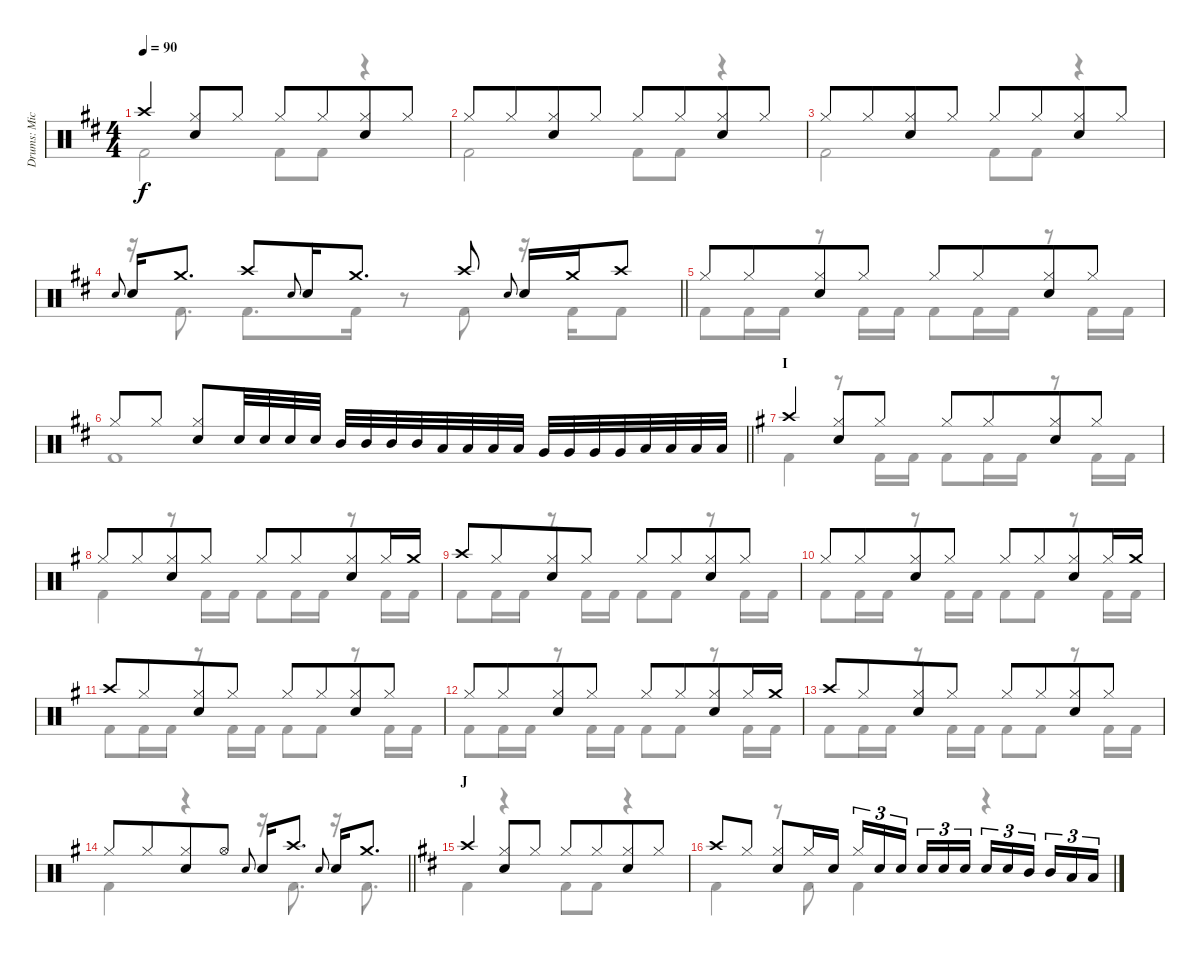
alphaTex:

\track ("Drums: Mick" "Drums: Mic") {instrument percussion}
\staff {score}
\articulation defaults
\voice
\ts (4 4)
\tempo 90
\clef neutral
\ks d "Crash high (hit)".4{dy f}
("Hi-Hat (closed)" "Snare (hit) 2").8 "Hi-Hat (closed)".8 "Hi-Hat (closed)".8 "Hi-Hat (closed)".8{beam merge} ("Hi-Hat (closed)" "Snare (hit) 2").8 "Hi-Hat (closed)".8 |
"Hi-Hat (closed)".8 "Hi-Hat (closed)".8{beam merge} ("Hi-Hat (closed)" "Snare (hit) 2").8 "Hi-Hat (closed)".8 "Hi-Hat (closed)".8 "Hi-Hat (closed)".8{beam merge} ("Hi-Hat (closed)" "Snare (hit) 2").8 "Hi-Hat (closed)".8 |
"Hi-Hat (closed)".8 "Hi-Hat (closed)".8{beam merge} ("Hi-Hat (closed)" "Snare (hit) 2").8 "Hi-Hat (closed)".8 "Hi-Hat (closed)".8 "Hi-Hat (closed)".8{beam merge} ("Hi-Hat (closed)" "Snare (hit) 2").8 "Hi-Hat (closed)".8 |
\barLineRight lightlight "Electric Snare (hit)".8{gr onbeat beam merge} "Snare (hit) 2".16 "Crash medium (hit)".8{d} "Crash high (hit)".8 "Electric Snare (hit)".8{gr onbeat beam merge} "Snare (hit) 2".16 "Crash medium (hit)".8{d} "Crash high (hit)".8 "Electric Snare (hit)".8{gr onbeat beam merge} "Snare (hit) 2".16 "Crash medium (hit)".16 "Crash high (hit)".8
|
"Hi-Hat (closed)".8 "Hi-Hat (closed)".8{beam merge} ("Hi-Hat (closed)" "Snare (hit) 2").8 "Hi-Hat (closed)".8 "Hi-Hat (closed)".8 "Hi-Hat (closed)".8{beam merge} ("Hi-Hat (closed)" "Snare (hit) 2").8 "Hi-Hat (closed)".8 |
\barLineRight lightlight "Hi-Hat (closed)".8 "Hi-Hat (closed)".8
("Hi-Hat (closed)" "Snare (hit) 2").8 "Snare (hit) 2".32 "Snare (hit) 2".32 "Snare (hit) 2".32 "Snare (hit) 2".32 "Mid Tom (hit)".32 "Mid Tom (hit)".32 "Mid Tom (hit)".32 "Mid Tom (hit)".32 "Low Tom (hit)".32 "Low Tom (hit)".32 "Low Tom (hit)".32 "Low Tom (hit)".32 "Very Low Tom (hit)".32 "Very Low Tom (hit)".32 "Very Low Tom (hit)".32 "Very Low Tom (hit)".32 "Low Floor Tom (hit)".32 "Low Floor Tom (hit)".32 "Low Floor Tom (hit)".32 "Low Floor Tom (hit)".32 |
\section ("" "I")
\ks g "Crash high (hit)".4
("Hi-Hat (closed)" "Snare (hit) 2").8 "Hi-Hat (closed)".8 "Hi-Hat (closed)".8 "Hi-Hat (closed)".8{beam merge} ("Hi-Hat (closed)" "Snare (hit) 2").8 "Hi-Hat (closed)".8 |
"Hi-Hat (closed)".8 "Hi-Hat (closed)".8{beam merge} ("Hi-Hat (closed)" "Snare (hit) 2").8 "Hi-Hat (closed)".8 "Hi-Hat (closed)".8 "Hi-Hat (closed)".8{beam merge} ("Hi-Hat (closed)" "Snare (hit) 2").8 "Hi-Hat (closed)".16 "Crash medium (hit)".16 |
"Crash high (hit)".8 "Hi-Hat (closed)".8{beam merge} ("Hi-Hat (closed)" "Snare (hit) 2").8 "Hi-Hat (closed)".8 "Hi-Hat (closed)".8 "Hi-Hat (closed)".8{beam merge} ("Hi-Hat (closed)" "Snare (hit) 2").8 "Hi-Hat (closed)".8 |
"Hi-Hat (closed)".8 "Hi-Hat (closed)".8{beam merge} ("Hi-Hat (closed)" "Snare (hit) 2").8 "Hi-Hat (closed)".8 "Hi-Hat (closed)".8 "Hi-Hat (closed)".8{beam merge} ("Hi-Hat (closed)" "Snare (hit) 2").8 "Hi-Hat (closed)".16 "Crash medium (hit)".16 |
"Crash high (hit)".8 "Hi-Hat (closed)".8{beam merge} ("Hi-Hat (closed)" "Snare (hit) 2").8 "Hi-Hat (closed)".8 "Hi-Hat (closed)".8 "Hi-Hat (closed)".8{beam merge} ("Hi-Hat (closed)" "Snare (hit) 2").8 "Hi-Hat (closed)".8 |
"Hi-Hat (closed)".8 "Hi-Hat (closed)".8{beam merge} ("Hi-Hat (closed)" "Snare (hit) 2").8 "Hi-Hat (closed)".8 "Hi-Hat (closed)".8 "Hi-Hat (closed)".8{beam merge} ("Hi-Hat (closed)" "Snare (hit) 2").8 "Hi-Hat (closed)".16 "Crash medium (hit)".16 |
"Crash high (hit)".8 "Hi-Hat (closed)".8{beam merge} ("Hi-Hat (closed)" "Snare (hit) 2").8 "Hi-Hat (closed)".8 "Hi-Hat (closed)".8 "Hi-Hat (closed)".8{beam merge} ("Hi-Hat (closed)" "Snare (hit) 2").8 "Hi-Hat (closed)".8 |
\barLineRight lightlight "Hi-Hat (closed)".8 "Hi-Hat (closed)".8{beam merge}
("Hi-Hat (closed)" "Snare (hit) 2").8 "Hi-Hat (open)".8 "Electric Snare (hit)".8{gr onbeat} "Snare (hit) 2".16 "Crash high (hit)".8{d} "Electric Snare (hit)".8{gr onbeat} "Snare (hit) 2".16 "Crash medium (hit)".8{d} |
\section ("" "J")
\ks d "Crash high (hit)".4
("Hi-Hat (closed)" "Snare (hit) 2").8 "Hi-Hat (closed)".8 "Hi-Hat (closed)".8 "Hi-Hat (closed)".8{beam merge} ("Hi-Hat (closed)" "Snare (hit) 2").8 "Hi-Hat (closed)".8 |
"Crash high (hit)".8 "Hi-Hat (closed)".8 ("Hi-Hat (closed)" "Snare (hit) 2").8 "Hi-Hat (closed)".16 "Snare (hit) 2".16 "Hi-Hat (closed)".16{tu (3 2)} "Snare (hit) 2".16{tu (3 2)} "Snare (hit) 2".16{tu (3 2) beam splitsecondary} "Snare (hit) 2".16{tu (3 2)} "Snare (hit) 2".16{tu (3 2)} "Snare (hit) 2".16{tu (3 2)} "Snare (hit) 2".16{tu (3 2)} "Snare (hit) 2".16{tu (3 2)} "Mid Tom (hit)".16{tu (3 2) beam splitsecondary} "Mid Tom (hit)".16{tu (3 2)} "Low Tom (hit)".16{tu (3 2)} "Low Tom (hit)".16{tu (3 2)}
\voice
\clef neutral
\ottava regular
\simile none
\ks d "Kick (hit) 2".2{dy f} "Kick (hit) 2".8 "Kick (hit) 2".8
r.4 |
"Kick (hit) 2".2 "Kick (hit) 2".8 "Kick (hit) 2".8 r.4 |
"Kick (hit) 2".2 "Kick (hit) 2".8 "Kick (hit) 2".8 r.4 |
\barLineRight lightlight
r.16 "Kick (hit) 2".8{d} "Kick (hit) 2".8{d} "Kick (hit) 2".16 r.8 "Kick (hit) 2".8 r.16 "Kick (hit) 2".16 "Kick (hit) 2".8 |
"Kick (hit) 2".8 "Kick (hit) 2".16 "Kick (hit) 2".16 r.8 "Kick (hit) 2".16 "Kick (hit) 2".16 "Kick (hit) 2".8 "Kick (hit) 2".16 "Kick (hit) 2".16 r.8 "Kick (hit) 2".16 "Kick (hit) 2".16 |
\barLineRight lightlight "Kick (hit) 2".1
|
\ks g "Kick (hit) 2".4
r.8 "Kick (hit) 2".16 "Kick (hit) 2".16 "Kick (hit) 2".8 "Kick (hit) 2".16 "Kick (hit) 2".16 r.8 "Kick (hit) 2".16 "Kick (hit) 2".16 |
"Kick (hit) 2".4 r.8 "Kick (hit) 2".16 "Kick (hit) 2".16 "Kick (hit) 2".8 "Kick (hit) 2".16 "Kick (hit) 2".16 r.8 "Kick (hit) 2".16 "Kick (hit) 2".16 |
"Kick (hit) 2".8 "Kick (hit) 2".16 "Kick (hit) 2".16 r.8 "Kick (hit) 2".16 "Kick (hit) 2".16 "Kick (hit) 2".8 "Kick (hit) 2".8 r.8 "Kick (hit) 2".16 "Kick (hit) 2".16 |
"Kick (hit) 2".8 "Kick (hit) 2".16 "Kick (hit) 2".16 r.8 "Kick (hit) 2".16 "Kick (hit) 2".16 "Kick (hit) 2".8 "Kick (hit) 2".8 r.8 "Kick (hit) 2".16 "Kick (hit) 2".16 |
"Kick (hit) 2".8 "Kick (hit) 2".16 "Kick (hit) 2".16 r.8 "Kick (hit) 2".16 "Kick (hit) 2".16 "Kick (hit) 2".8 "Kick (hit) 2".8 r.8 "Kick (hit) 2".16 "Kick (hit) 2".16 |
"Kick (hit) 2".8 "Kick (hit) 2".16 "Kick (hit) 2".16 r.8 "Kick (hit) 2".16 "Kick (hit) 2".16 "Kick (hit) 2".8 "Kick (hit) 2".8 r.8 "Kick (hit) 2".16 "Kick (hit) 2".16 |
"Kick (hit) 2".8 "Kick (hit) 2".16 "Kick (hit) 2".16 r.8 "Kick (hit) 2".16 "Kick (hit) 2".16 "Kick (hit) 2".8 "Kick (hit) 2".8 r.8 "Kick (hit) 2".16 "Kick (hit) 2".16 |
\barLineRight lightlight "Kick (hit) 2".4
r.4 r.16 "Kick (hit) 2".8{d} r.16 "Kick (hit) 2".8{d} |
\ks d "Kick (hit) 2".4
r.4 "Kick (hit) 2".8 "Kick (hit) 2".8 r.4 |
"Kick (hit) 2".4 r.8 "Kick (hit) 2".8 "Kick (hit) 2".4 r.4
